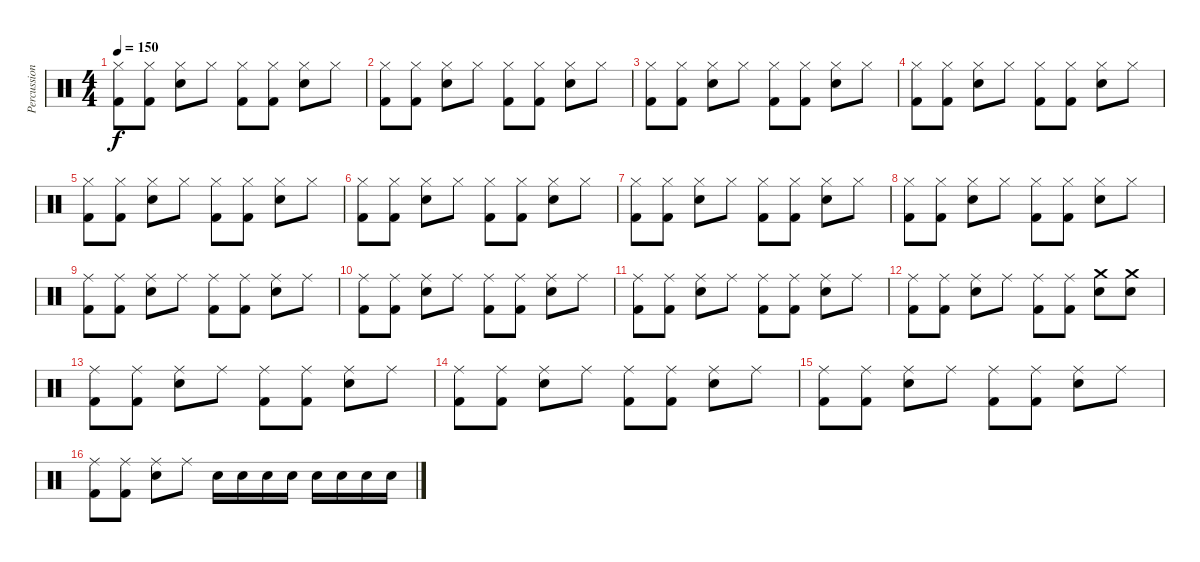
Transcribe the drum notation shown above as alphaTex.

\track ("Percussion" "Percussion") {instrument percussion}
\staff {score}
\articulation defaults
\ts (4 4)
\tempo 150
\clef neutral
\ks c
("Hi-Hat (closed)" "Kick (hit) 2").8{dy f} ("Hi-Hat (closed)" "Kick (hit) 2").8 ("Hi-Hat (closed)" "Electric Snare (hit)").8 "Hi-Hat (closed)".8 ("Hi-Hat (closed)" "Kick (hit) 2").8 ("Hi-Hat (closed)" "Kick (hit) 2").8 ("Hi-Hat (closed)" "Electric Snare (hit)").8 "Hi-Hat (closed)".8 |
("Hi-Hat (closed)" "Kick (hit) 2").8 ("Hi-Hat (closed)" "Kick (hit) 2").8 ("Hi-Hat (closed)" "Electric Snare (hit)").8 "Hi-Hat (closed)".8 ("Hi-Hat (closed)" "Kick (hit) 2").8 ("Hi-Hat (closed)" "Kick (hit) 2").8 ("Hi-Hat (closed)" "Electric Snare (hit)").8 "Hi-Hat (closed)".8 |
("Hi-Hat (closed)" "Kick (hit) 2").8 ("Hi-Hat (closed)" "Kick (hit) 2").8 ("Hi-Hat (closed)" "Electric Snare (hit)").8 "Hi-Hat (closed)".8 ("Hi-Hat (closed)" "Kick (hit) 2").8 ("Hi-Hat (closed)" "Kick (hit) 2").8 ("Hi-Hat (closed)" "Electric Snare (hit)").8 "Hi-Hat (closed)".8 |
("Hi-Hat (closed)" "Kick (hit) 2").8 ("Hi-Hat (closed)" "Kick (hit) 2").8 ("Hi-Hat (closed)" "Electric Snare (hit)").8 "Hi-Hat (closed)".8 ("Hi-Hat (closed)" "Kick (hit) 2").8 ("Hi-Hat (closed)" "Kick (hit) 2").8 ("Hi-Hat (closed)" "Electric Snare (hit)").8 "Hi-Hat (closed)".8 |
("Hi-Hat (closed)" "Kick (hit) 2").8 ("Hi-Hat (closed)" "Kick (hit) 2").8 ("Hi-Hat (closed)" "Electric Snare (hit)").8 "Hi-Hat (closed)".8 ("Hi-Hat (closed)" "Kick (hit) 2").8 ("Hi-Hat (closed)" "Kick (hit) 2").8 ("Hi-Hat (closed)" "Electric Snare (hit)").8 "Hi-Hat (closed)".8 |
("Hi-Hat (closed)" "Kick (hit) 2").8 ("Hi-Hat (closed)" "Kick (hit) 2").8 ("Hi-Hat (closed)" "Electric Snare (hit)").8 "Hi-Hat (closed)".8 ("Hi-Hat (closed)" "Kick (hit) 2").8 ("Hi-Hat (closed)" "Kick (hit) 2").8 ("Hi-Hat (closed)" "Electric Snare (hit)").8 "Hi-Hat (closed)".8 |
("Hi-Hat (closed)" "Kick (hit) 2").8 ("Hi-Hat (closed)" "Kick (hit) 2").8 ("Hi-Hat (closed)" "Electric Snare (hit)").8 "Hi-Hat (closed)".8 ("Hi-Hat (closed)" "Kick (hit) 2").8 ("Hi-Hat (closed)" "Kick (hit) 2").8 ("Hi-Hat (closed)" "Electric Snare (hit)").8 "Hi-Hat (closed)".8 |
("Hi-Hat (closed)" "Kick (hit) 2").8 ("Hi-Hat (closed)" "Kick (hit) 2").8 ("Hi-Hat (closed)" "Electric Snare (hit)").8 "Hi-Hat (closed)".8 ("Hi-Hat (closed)" "Kick (hit) 2").8 ("Hi-Hat (closed)" "Kick (hit) 2").8 ("Hi-Hat (closed)" "Electric Snare (hit)").8 "Hi-Hat (closed)".8 |
("Ride (middle)" "Kick (hit) 2").8 ("Ride (middle)" "Kick (hit) 2").8 ("Ride (middle)" "Electric Snare (hit)").8 "Ride (middle)".8 ("Ride (middle)" "Kick (hit) 2").8 ("Ride (middle)" "Kick (hit) 2").8 ("Ride (middle)" "Electric Snare (hit)").8 "Ride (middle)".8 |
("Ride (middle)" "Kick (hit) 2").8 ("Ride (middle)" "Kick (hit) 2").8 ("Ride (middle)" "Electric Snare (hit)").8 "Ride (middle)".8 ("Ride (middle)" "Kick (hit) 2").8 ("Ride (middle)" "Kick (hit) 2").8 ("Ride (middle)" "Electric Snare (hit)").8 "Ride (middle)".8 |
("Ride (middle)" "Kick (hit) 2").8 ("Ride (middle)" "Kick (hit) 2").8 ("Ride (middle)" "Electric Snare (hit)").8 "Ride (middle)".8 ("Ride (middle)" "Kick (hit) 2").8 ("Ride (middle)" "Kick (hit) 2").8 ("Ride (middle)" "Electric Snare (hit)").8 "Ride (middle)".8 |
("Ride (middle)" "Kick (hit) 2").8 ("Ride (middle)" "Kick (hit) 2").8 ("Ride (middle)" "Electric Snare (hit)").8 "Ride (middle)".8 ("Ride (middle)" "Kick (hit) 2").8 ("Ride (middle)" "Kick (hit) 2").8 ("Crash medium (hit)" "Electric Snare (hit)").8 ("Crash medium (hit)" "Electric Snare (hit)").8 |
("Ride (middle)" "Kick (hit) 2").8 ("Ride (middle)" "Kick (hit) 2").8 ("Ride (middle)" "Electric Snare (hit)").8 "Ride (middle)".8 ("Ride (middle)" "Kick (hit) 2").8 ("Ride (middle)" "Kick (hit) 2").8 ("Ride (middle)" "Electric Snare (hit)").8 "Ride (middle)".8 |
("Ride (middle)" "Kick (hit) 2").8 ("Ride (middle)" "Kick (hit) 2").8 ("Ride (middle)" "Electric Snare (hit)").8 "Ride (middle)".8 ("Ride (middle)" "Kick (hit) 2").8 ("Ride (middle)" "Kick (hit) 2").8 ("Ride (middle)" "Electric Snare (hit)").8 "Ride (middle)".8 |
("Ride (middle)" "Kick (hit) 2").8 ("Ride (middle)" "Kick (hit) 2").8 ("Ride (middle)" "Electric Snare (hit)").8 "Ride (middle)".8 ("Ride (middle)" "Kick (hit) 2").8 ("Ride (middle)" "Kick (hit) 2").8 ("Ride (middle)" "Electric Snare (hit)").8 "Ride (middle)".8 |
("Ride (middle)" "Kick (hit) 2").8 ("Ride (middle)" "Kick (hit) 2").8 ("Ride (middle)" "Electric Snare (hit)").8 "Ride (middle)".8 "Electric Snare (hit)".16 "Electric Snare (hit)".16 "Electric Snare (hit)".16 "Electric Snare (hit)".16 "Electric Snare (hit)".16 "Electric Snare (hit)".16 "Electric Snare (hit)".16 "Electric Snare (hit)".16
